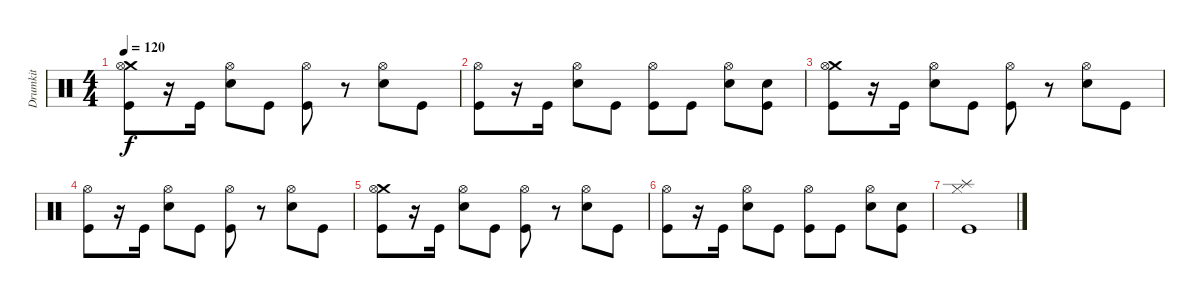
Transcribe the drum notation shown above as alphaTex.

\track ("Drumkit" "Drumkit") {instrument percussion}
\staff {score}
\articulation defaults
\ts (4 4)
\tempo 120
\clef neutral
\ks c
("Crash medium (hit)" "Hi-Hat (open)" "Kick (hit)").8{dy f} r.16 "Kick (hit)".16 ("Hi-Hat (open)" "Snare (hit) 2").8 "Kick (hit)".8 ("Hi-Hat (open)" "Kick (hit)").8 r.8 ("Hi-Hat (open)" "Snare (hit) 2").8 "Kick (hit)".8 |
("Hi-Hat (open)" "Kick (hit)").8 r.16 "Kick (hit)".16 ("Hi-Hat (open)" "Snare (hit) 2").8 "Kick (hit)".8 ("Hi-Hat (open)" "Kick (hit)").8 "Kick (hit)".8 ("Hi-Hat (open)" "Snare (hit) 2").8 ("Snare (hit) 2" "Kick (hit)").8 |
("Crash medium (hit)" "Hi-Hat (open)" "Kick (hit)").8 r.16 "Kick (hit)".16 ("Hi-Hat (open)" "Snare (hit) 2").8 "Kick (hit)".8 ("Hi-Hat (open)" "Kick (hit)").8 r.8 ("Hi-Hat (open)" "Snare (hit) 2").8 "Kick (hit)".8 |
("Hi-Hat (open)" "Kick (hit)").8 r.16 "Kick (hit)".16 ("Hi-Hat (open)" "Snare (hit) 2").8 "Kick (hit)".8 ("Hi-Hat (open)" "Kick (hit)").8 r.8 ("Hi-Hat (open)" "Snare (hit) 2").8 "Kick (hit)".8 |
("Crash medium (hit)" "Hi-Hat (open)" "Kick (hit)").8 r.16 "Kick (hit)".16 ("Hi-Hat (open)" "Snare (hit) 2").8 "Kick (hit)".8 ("Hi-Hat (open)" "Kick (hit)").8 r.8 ("Hi-Hat (open)" "Snare (hit) 2").8 "Kick (hit)".8 |
("Hi-Hat (open)" "Kick (hit)").8 r.16 "Kick (hit)".16 ("Hi-Hat (open)" "Snare (hit) 2").8 "Kick (hit)".8 ("Hi-Hat (open)" "Kick (hit)").8 "Kick (hit)".8 ("Hi-Hat (open)" "Snare (hit) 2").8 ("Snare (hit) 2" "Kick (hit)").8 |
("Hi-Hat (closed)" "Kick (hit)" "Splash (hit)").1
